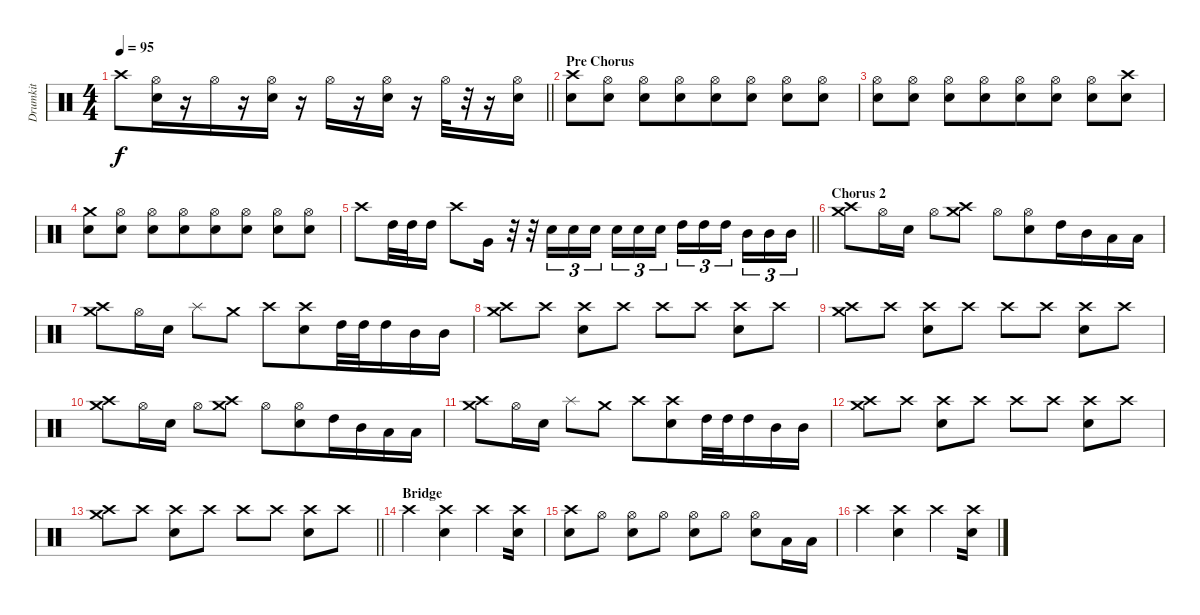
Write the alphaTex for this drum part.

\track ("Drumkit" "Drumkit") {instrument percussion}
\staff {score}
\articulation defaults
\ts (4 4)
\tempo 95
\clef neutral
\barLineRight lightlight
\ks c "Crash high (hit)".8{dy f}
("Hi-Hat (open)" "Electric Snare (hit)").16{beam merge} r.16{beam merge} "Hi-Hat (open)".16 r.16{beam merge} ("Hi-Hat (open)" "Electric Snare (hit)").16 r.16 "Hi-Hat (open)".16 r.16 ("Hi-Hat (open)" "Electric Snare (hit)").16 r.16 "Hi-Hat (open)".32{beam merge} r.32{beam merge} r.16 ("Hi-Hat (open)" "Electric Snare (hit)").16 |
\section ("" "Pre Chorus")
("Crash high (hit)" "Electric Snare (hit)").8 ("Hi-Hat (open)" "Electric Snare (hit)").8 ("Hi-Hat (open)" "Electric Snare (hit)").8{beam merge} ("Hi-Hat (open)" "Electric Snare (hit)").8{beam merge} ("Hi-Hat (open)" "Electric Snare (hit)").8 ("Hi-Hat (open)" "Electric Snare (hit)").8 ("Hi-Hat (open)" "Electric Snare (hit)").8 ("Hi-Hat (open)" "Electric Snare (hit)").8 |
("Hi-Hat (open)" "Electric Snare (hit)").8 ("Hi-Hat (open)" "Electric Snare (hit)").8 ("Hi-Hat (open)" "Electric Snare (hit)").8{beam merge} ("Hi-Hat (open)" "Electric Snare (hit)").8{beam merge} ("Hi-Hat (open)" "Electric Snare (hit)").8 ("Hi-Hat (open)" "Electric Snare (hit)").8 ("Hi-Hat (open)" "Electric Snare (hit)").8 ("Crash high (hit)" "Electric Snare (hit)").8 |
("Crash medium (hit)" "Electric Snare (hit)").8 ("Hi-Hat (open)" "Electric Snare (hit)").8 ("Hi-Hat (open)" "Electric Snare (hit)").8{beam merge} ("Hi-Hat (open)" "Electric Snare (hit)").8{beam merge} ("Hi-Hat (open)" "Electric Snare (hit)").8 ("Hi-Hat (open)" "Electric Snare (hit)").8 ("Hi-Hat (open)" "Electric Snare (hit)").8 ("Hi-Hat (open)" "Electric Snare (hit)").8 |
\barLineRight lightlight "Crash high (hit)".8 "High Tom (hit)".32 "High Tom (hit)".32 "High Tom (hit)".16 "Crash high (hit)".8 "Very Low Tom (hit)".16
r.32{beam merge} r.32 "Electric Snare (hit)".16{tu (3 2)} "Electric Snare (hit)".16{tu (3 2) beam merge} "Electric Snare (hit)".16{tu (3 2) beam splitsecondary} "Electric Snare (hit)".16{tu (3 2)} "Electric Snare (hit)".16{tu (3 2)} "Electric Snare (hit)".16{tu (3 2)} "High Tom (hit)".16{tu (3 2)} "High Tom (hit)".16{tu (3 2)} "High Tom (hit)".16{tu (3 2) beam splitsecondary} "Mid Tom (hit)".16{tu (3 2)} "Mid Tom (hit)".16{tu (3 2) beam merge} "Mid Tom (hit)".16{tu (3 2)} |
\section ("" "Chorus 2")
("Crash medium (hit)" "Crash high (hit)").8 "Hi-Hat (open)".16 "Electric Snare (hit)".16 "Hi-Hat (open)".8 ("Crash medium (hit)" "Crash high (hit)").8 "Hi-Hat (open)".8 ("Hi-Hat (open)" "Electric Snare (hit)").8{beam merge} "High Tom (hit)".16 "Mid Tom (hit)".16 "Low Tom (hit)".16 "Low Tom (hit)".16 |
("Crash medium (hit)" "Crash high (hit)").8 "Hi-Hat (open)".16 "Electric Snare (hit)".16 "Splash (hit)".8 "Crash medium (hit)".8 "Crash high (hit)".8 ("Crash high (hit)" "Electric Snare (hit)").8{beam merge} "High Tom (hit)".32 "High Tom (hit)".32 "High Tom (hit)".16 "Mid Tom (hit)".16 "Mid Tom (hit)".16 |
("Crash medium (hit)" "Crash high (hit)").8 "Crash high (hit)".8 ("Crash high (hit)" "Electric Snare (hit)").8 "Crash high (hit)".8 "Crash high (hit)".8 "Crash high (hit)".8 ("Crash high (hit)" "Electric Snare (hit)").8{beam merge} "Crash high (hit)".8 |
("Crash medium (hit)" "Crash high (hit)").8{beam merge} "Crash high (hit)".8 ("Crash high (hit)" "Electric Snare (hit)").8 "Crash high (hit)".8 "Crash high (hit)".8{beam merge} "Crash high (hit)".8 ("Crash high (hit)" "Electric Snare (hit)").8 "Crash high (hit)".8 |
("Crash medium (hit)" "Crash high (hit)").8 "Hi-Hat (open)".16 "Electric Snare (hit)".16 "Hi-Hat (open)".8 ("Crash medium (hit)" "Crash high (hit)").8 "Hi-Hat (open)".8 ("Hi-Hat (open)" "Electric Snare (hit)").8{beam merge} "High Tom (hit)".16 "Mid Tom (hit)".16 "Low Tom (hit)".16 "Low Tom (hit)".16 |
("Crash medium (hit)" "Crash high (hit)").8 "Hi-Hat (open)".16 "Electric Snare (hit)".16 "Splash (hit)".8 "Crash medium (hit)".8 "Crash high (hit)".8 ("Crash high (hit)" "Electric Snare (hit)").8{beam merge} "High Tom (hit)".32 "High Tom (hit)".32 "High Tom (hit)".16 "Mid Tom (hit)".16 "Mid Tom (hit)".16 |
("Crash medium (hit)" "Crash high (hit)").8 "Crash high (hit)".8 ("Crash high (hit)" "Electric Snare (hit)").8 "Crash high (hit)".8 "Crash high (hit)".8 "Crash high (hit)".8 ("Crash high (hit)" "Electric Snare (hit)").8{beam merge} "Crash high (hit)".8 |
\barLineRight lightlight
("Crash medium (hit)" "Crash high (hit)").8{beam merge} "Crash high (hit)".8 ("Crash high (hit)" "Electric Snare (hit)").8 "Crash high (hit)".8 "Crash high (hit)".8{beam merge} "Crash high (hit)".8 ("Crash high (hit)" "Electric Snare (hit)").8 "Crash high (hit)".8 |
\section ("" "Bridge")
"Crash high (hit)".4{beam merge} ("Crash high (hit)" "Electric Snare (hit)").4 "Crash high (hit)".4{beam merge} ("Crash high (hit)" "Electric Snare (hit)").16 |
("Crash high (hit)" "Electric Snare (hit)").8{beam merge} "Hi-Hat (open)".8 ("Hi-Hat (open)" "Electric Snare (hit)").8 "Hi-Hat (open)".8 ("Hi-Hat (open)" "Electric Snare (hit)").8{beam merge} "Hi-Hat (open)".8 ("Hi-Hat (open)" "Electric Snare (hit)").8{beam merge} "Low Floor Tom (hit)".16{beam merge} "Low Floor Tom (hit)".16 |
"Crash high (hit)".4{beam merge} ("Crash high (hit)" "Electric Snare (hit)").4 "Crash high (hit)".4{beam merge} ("Crash high (hit)" "Electric Snare (hit)").16
